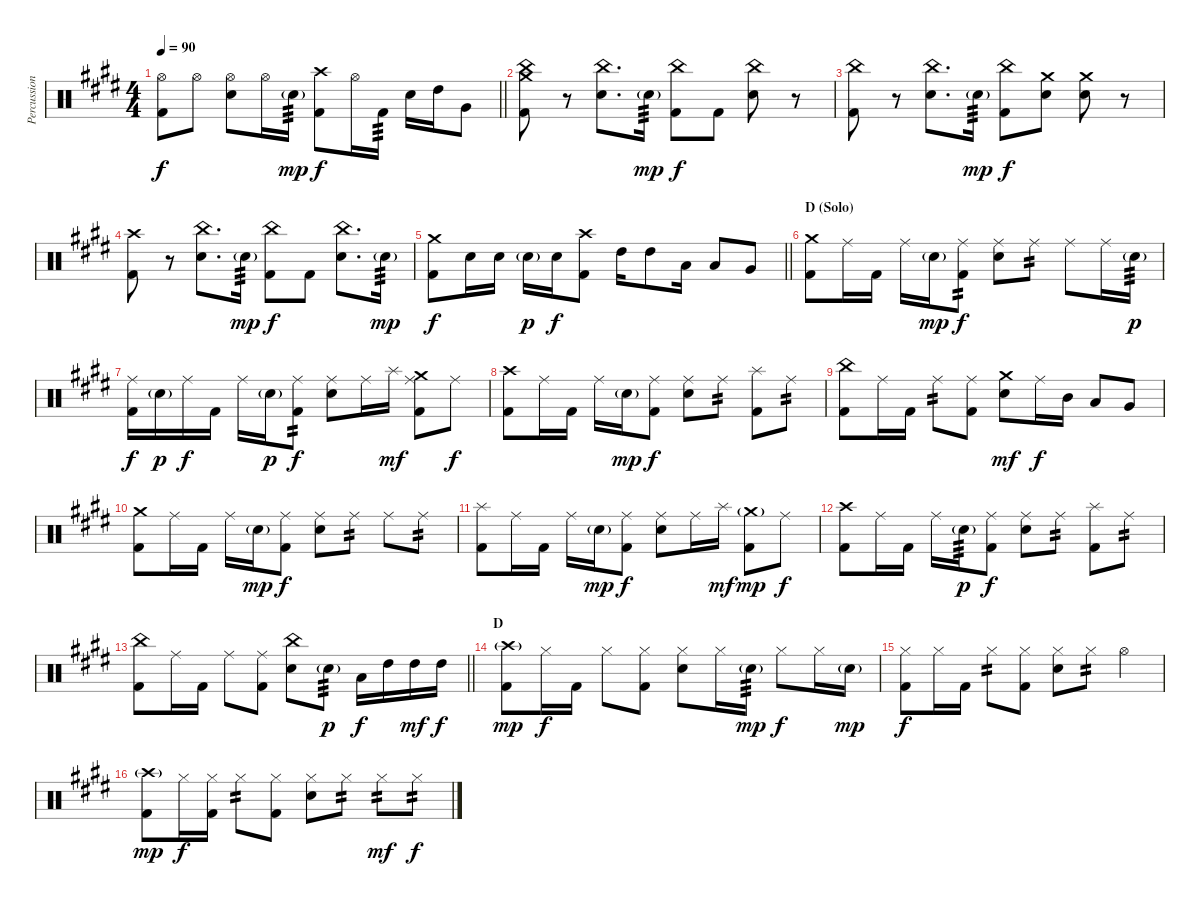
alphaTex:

\track ("Percussion" "Percussion") {instrument percussion}
\staff {score}
\articulation defaults
\ts (4 4)
\tempo 90
\clef neutral
\barLineRight lightlight
\ks c#minor
("Hi-Hat (open)" "Kick (hit) 2").8{dy f} "Hi-Hat (open)".8 ("Hi-Hat (open)" "Snare (hit) 2").8 "Hi-Hat (open)".16 "Snare (hit) 2"{g}.16{tp 3 dy mp} ("Crash high (hit)" "Kick (hit) 2").8{dy f} "Hi-Hat (open)".16 "Kick (hit) 2".16{tp 3} "Snare (hit) 2".16 "High Tom (hit)".16 "Very Low Tom (hit)".8 |
("China (hit)" "Crash medium (hit)" "Kick (hit) 2").8 r.8 ("China (hit)" "Snare (hit) 2").8{d} "Snare (hit) 2"{g}.16{tp 3 dy mp} ("China (hit)" "Kick (hit) 2").8{dy f} "Kick (hit) 2".8 ("China (hit)" "Snare (hit) 2").8 r.8 |
("China (hit)" "Kick (hit) 2").8 r.8 ("China (hit)" "Snare (hit) 2").8{d} "Snare (hit) 2"{g}.16{tp 3 dy mp} ("China (hit)" "Kick (hit) 2").8{dy f} ("Crash medium (hit)" "Snare (hit) 2").8 ("Crash medium (hit)" "Snare (hit) 2").8 r.8 |
("Crash high (hit)" "Kick (hit) 2").8 r.8 ("China (hit)" "Snare (hit) 2").8{d} "Snare (hit) 2"{g}.16{tp 3 dy mp} ("China (hit)" "Kick (hit) 2").8{dy f} "Kick (hit) 2".8 ("China (hit)" "Snare (hit) 2").8{d} "Snare (hit) 2"{g}.16{tp 3 dy mp} |
\barLineRight lightlight
("Crash medium (hit)" "Kick (hit) 2").8{dy f} "Snare (hit) 2".16 "Snare (hit) 2".16 "Snare (hit) 2"{g}.16{dy p} "Snare (hit) 2".16{dy f} ("Crash high (hit)" "Kick (hit) 2").8 "High Tom (hit)".16 "High Tom (hit)".8 "Low Tom (hit)".16 "Low Tom (hit)".8 "Very Low Tom (hit)".8 |
\section ("" "D (Solo)")
("Crash medium (hit)" "Kick (hit) 2").8 "Ride (middle)".16 "Kick (hit) 2".16 "Ride (middle)".16 "Snare (hit) 2"{g}.16{dy mp} ("Ride (middle)" "Kick (hit) 2").8{tp 2 dy f} ("Ride (middle)" "Snare (hit) 2").8 "Ride (middle)".8{tp 2} "Ride (middle)".8 "Ride (middle)".16 "Snare (hit) 2"{g}.16{tp 3 dy p} |
("Ride (middle)" "Kick (hit) 2").16{dy f} "Snare (hit) 2"{g}.16{dy p} "Ride (middle)".16{dy f} "Kick (hit) 2".16 "Ride (middle)".16 "Snare (hit) 2"{g}.16{dy p} ("Ride (middle)" "Kick (hit) 2").8{tp 2 dy f} ("Ride (middle)" "Snare (hit) 2").8 "Ride (middle)".16 "Splash (hit)".16{dy mf} ("Ride (middle)" "Crash medium (hit)" "Kick (hit) 2").8 "Ride (middle)".8{dy f} |
("Crash high (hit)" "Kick (hit) 2").8 "Ride (middle)".16 "Kick (hit) 2".16 "Ride (middle)".16 "Snare (hit) 2"{g}.16{dy mp} ("Ride (middle)" "Kick (hit) 2").8{dy f} ("Ride (middle)" "Snare (hit) 2").8 "Ride (middle)".8{tp 2} ("Splash (hit)" "Kick (hit) 2").8 "Ride (middle)".8{tp 2} |
("China (hit)" "Kick (hit) 2").8 "Ride (middle)".16 "Kick (hit) 2".16 "Ride (middle)".8{tp 2} ("Ride (middle)" "Kick (hit) 2").8 ("Crash medium (hit)" "Snare (hit) 2").8{dy mf} "Ride (middle)".16{dy f} "Mid Tom (hit)".16 "Low Tom (hit)".8 "Very Low Tom (hit)".8 |
("Crash medium (hit)" "Kick (hit) 2").8 "Ride (middle)".16 "Kick (hit) 2".16 "Ride (middle)".16 "Snare (hit) 2"{g}.16{dy mp} ("Ride (middle)" "Kick (hit) 2").8{dy f} ("Ride (middle)" "Snare (hit) 2").8 "Ride (middle)".8{tp 2} "Ride (middle)".8 "Ride (middle)".8{tp 2} |
("Splash (hit)" "Kick (hit) 2").8 "Ride (middle)".16 "Kick (hit) 2".16 "Ride (middle)".16 "Snare (hit) 2"{g}.16{dy mp} ("Ride (middle)" "Kick (hit) 2").8{dy f} ("Ride (middle)" "Snare (hit) 2").8 "Ride (middle)".16 "Splash (hit)".16{dy mf} ("Crash medium (hit)"{g} "Kick (hit) 2").8{dy mp} "Ride (middle)".8{dy f} |
("Crash high (hit)" "Kick (hit) 2").8 "Ride (middle)".16 "Kick (hit) 2".16 "Ride (middle)".16 "Snare (hit) 2"{g}.16{tp 3 dy p} ("Ride (middle)" "Kick (hit) 2").8{dy f} ("Ride (middle)" "Snare (hit) 2").8 "Ride (middle)".8{tp 2} ("Splash (hit)" "Kick (hit) 2").8 "Ride (middle)".8{tp 2} |
\barLineRight lightlight
("China (hit)" "Kick (hit) 2").8 "Ride (middle)".16 "Kick (hit) 2".16 "Ride (middle)".8 ("Ride (middle)" "Kick (hit) 2").8 ("China (hit)" "Snare (hit) 2").8 "Snare (hit) 2"{g}.8{tp 3 dy p} "Low Tom (hit)".16{dy f} "High Tom (hit)".16 "High Tom (hit)".16{dy mf} "High Tom (hit)".16{dy f} |
\section ("" "D")
("Crash high (hit)"{g} "Kick (hit) 2").8{dy mp} "Hi-Hat (closed)".16{dy f} "Kick (hit) 2".16 "Hi-Hat (closed)".8 ("Hi-Hat (closed)" "Kick (hit) 2").8 ("Hi-Hat (closed)" "Snare (hit) 2").8 "Hi-Hat (closed)".16 "Snare (hit) 2"{g}.16{tp 3 dy mp} "Hi-Hat (closed)".8{dy f} "Hi-Hat (closed)".16 "Snare (hit) 2"{g}.16{dy mp} |
("Hi-Hat (closed)" "Kick (hit) 2").8{dy f} "Hi-Hat (closed)".16 "Kick (hit) 2".16 "Hi-Hat (closed)".8{tp 2} ("Hi-Hat (closed)" "Kick (hit) 2").8 ("Hi-Hat (closed)" "Snare (hit) 2").8 "Hi-Hat (closed)".8{tp 2} "Hi-Hat (open)".4 |
("Crash high (hit)"{g} "Kick (hit) 2").8{dy mp} "Hi-Hat (closed)".16{dy f} ("Hi-Hat (closed)" "Kick (hit) 2").16 "Hi-Hat (closed)".8{tp 2} ("Hi-Hat (closed)" "Kick (hit) 2").8 ("Hi-Hat (closed)" "Snare (hit) 2").8 "Hi-Hat (closed)".8{tp 2} "Hi-Hat (closed)".8{tp 2 dy mf} "Hi-Hat (closed)".8{tp 2 dy f}
